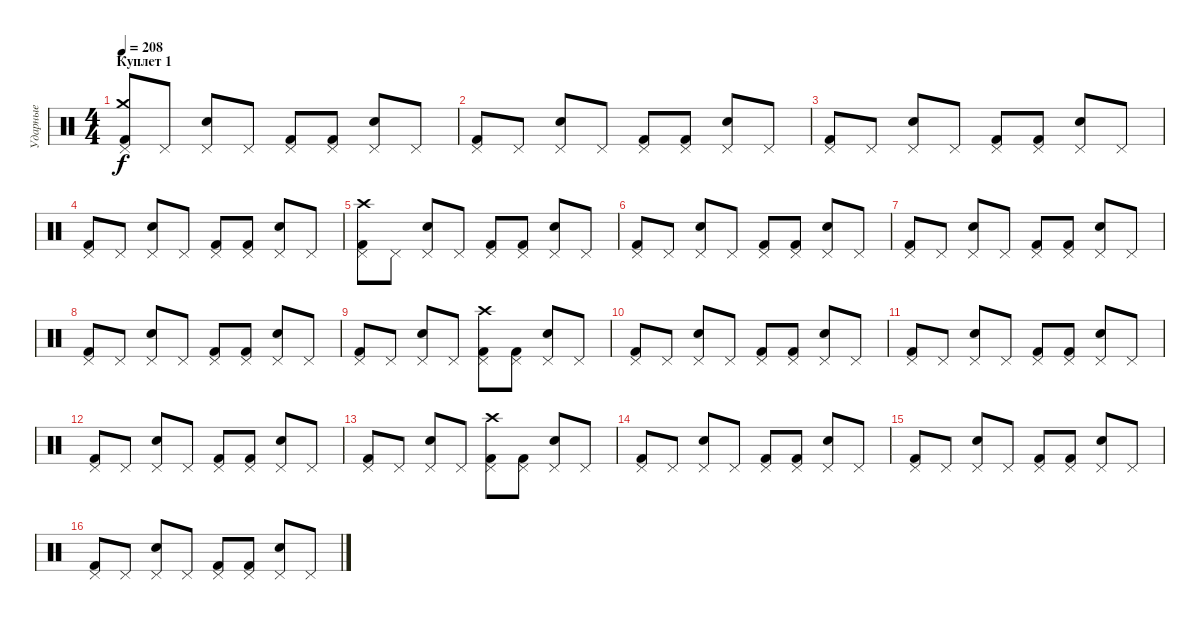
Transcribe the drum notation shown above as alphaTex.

\track ("Ударные" "Ударные") {instrument percussion}
\staff {score}
\articulation defaults
\ts (4 4)
\section ("" "Куплет 1")
\tempo 208
\clef neutral
\ks c
("Pedal Hi-Hat (hit)" "Crash medium (hit)" "Kick (hit) 2").8{dy f} "Pedal Hi-Hat (hit)".8 ("Pedal Hi-Hat (hit)" "Electric Snare (hit)").8 "Pedal Hi-Hat (hit)".8 ("Pedal Hi-Hat (hit)" "Kick (hit) 2").8 ("Pedal Hi-Hat (hit)" "Kick (hit) 2").8 ("Pedal Hi-Hat (hit)" "Electric Snare (hit)").8 "Pedal Hi-Hat (hit)".8 |
("Pedal Hi-Hat (hit)" "Kick (hit) 2").8 "Pedal Hi-Hat (hit)".8 ("Pedal Hi-Hat (hit)" "Electric Snare (hit)").8 "Pedal Hi-Hat (hit)".8 ("Pedal Hi-Hat (hit)" "Kick (hit) 2").8 ("Pedal Hi-Hat (hit)" "Kick (hit) 2").8 ("Pedal Hi-Hat (hit)" "Electric Snare (hit)").8 "Pedal Hi-Hat (hit)".8 |
("Pedal Hi-Hat (hit)" "Kick (hit) 2").8 "Pedal Hi-Hat (hit)".8 ("Pedal Hi-Hat (hit)" "Electric Snare (hit)").8 "Pedal Hi-Hat (hit)".8 ("Pedal Hi-Hat (hit)" "Kick (hit) 2").8 ("Pedal Hi-Hat (hit)" "Kick (hit) 2").8 ("Pedal Hi-Hat (hit)" "Electric Snare (hit)").8 "Pedal Hi-Hat (hit)".8 |
("Pedal Hi-Hat (hit)" "Kick (hit) 2").8 "Pedal Hi-Hat (hit)".8 ("Pedal Hi-Hat (hit)" "Electric Snare (hit)").8 "Pedal Hi-Hat (hit)".8 ("Pedal Hi-Hat (hit)" "Kick (hit) 2").8 ("Pedal Hi-Hat (hit)" "Kick (hit) 2").8 ("Pedal Hi-Hat (hit)" "Electric Snare (hit)").8 "Pedal Hi-Hat (hit)".8 |
("Pedal Hi-Hat (hit)" "Crash high (hit)" "Kick (hit) 2").8 "Pedal Hi-Hat (hit)".8 ("Pedal Hi-Hat (hit)" "Electric Snare (hit)").8 "Pedal Hi-Hat (hit)".8 ("Pedal Hi-Hat (hit)" "Kick (hit) 2").8 ("Pedal Hi-Hat (hit)" "Kick (hit) 2").8 ("Pedal Hi-Hat (hit)" "Electric Snare (hit)").8 "Pedal Hi-Hat (hit)".8 |
("Pedal Hi-Hat (hit)" "Kick (hit) 2").8 "Pedal Hi-Hat (hit)".8 ("Pedal Hi-Hat (hit)" "Electric Snare (hit)").8 "Pedal Hi-Hat (hit)".8 ("Pedal Hi-Hat (hit)" "Kick (hit) 2").8 ("Pedal Hi-Hat (hit)" "Kick (hit) 2").8 ("Pedal Hi-Hat (hit)" "Electric Snare (hit)").8 "Pedal Hi-Hat (hit)".8 |
("Pedal Hi-Hat (hit)" "Kick (hit) 2").8 "Pedal Hi-Hat (hit)".8 ("Pedal Hi-Hat (hit)" "Electric Snare (hit)").8 "Pedal Hi-Hat (hit)".8 ("Pedal Hi-Hat (hit)" "Kick (hit) 2").8 ("Pedal Hi-Hat (hit)" "Kick (hit) 2").8 ("Pedal Hi-Hat (hit)" "Electric Snare (hit)").8 "Pedal Hi-Hat (hit)".8 |
("Pedal Hi-Hat (hit)" "Kick (hit) 2").8 "Pedal Hi-Hat (hit)".8 ("Pedal Hi-Hat (hit)" "Electric Snare (hit)").8 "Pedal Hi-Hat (hit)".8 ("Pedal Hi-Hat (hit)" "Kick (hit) 2").8 ("Pedal Hi-Hat (hit)" "Kick (hit) 2").8 ("Pedal Hi-Hat (hit)" "Electric Snare (hit)").8 "Pedal Hi-Hat (hit)".8 |
("Pedal Hi-Hat (hit)" "Kick (hit) 2").8 "Pedal Hi-Hat (hit)".8 ("Pedal Hi-Hat (hit)" "Electric Snare (hit)").8 "Pedal Hi-Hat (hit)".8 ("Pedal Hi-Hat (hit)" "Crash high (hit)" "Kick (hit) 2").8 ("Pedal Hi-Hat (hit)" "Kick (hit) 2").8 ("Pedal Hi-Hat (hit)" "Electric Snare (hit)").8 "Pedal Hi-Hat (hit)".8 |
("Pedal Hi-Hat (hit)" "Kick (hit) 2").8 "Pedal Hi-Hat (hit)".8 ("Pedal Hi-Hat (hit)" "Electric Snare (hit)").8 "Pedal Hi-Hat (hit)".8 ("Pedal Hi-Hat (hit)" "Kick (hit) 2").8 ("Pedal Hi-Hat (hit)" "Kick (hit) 2").8 ("Pedal Hi-Hat (hit)" "Electric Snare (hit)").8 "Pedal Hi-Hat (hit)".8 |
("Pedal Hi-Hat (hit)" "Kick (hit) 2").8 "Pedal Hi-Hat (hit)".8 ("Pedal Hi-Hat (hit)" "Electric Snare (hit)").8 "Pedal Hi-Hat (hit)".8 ("Pedal Hi-Hat (hit)" "Kick (hit) 2").8 ("Pedal Hi-Hat (hit)" "Kick (hit) 2").8 ("Pedal Hi-Hat (hit)" "Electric Snare (hit)").8 "Pedal Hi-Hat (hit)".8 |
("Pedal Hi-Hat (hit)" "Kick (hit) 2").8 "Pedal Hi-Hat (hit)".8 ("Pedal Hi-Hat (hit)" "Electric Snare (hit)").8 "Pedal Hi-Hat (hit)".8 ("Pedal Hi-Hat (hit)" "Kick (hit) 2").8 ("Pedal Hi-Hat (hit)" "Kick (hit) 2").8 ("Pedal Hi-Hat (hit)" "Electric Snare (hit)").8 "Pedal Hi-Hat (hit)".8 |
("Pedal Hi-Hat (hit)" "Kick (hit) 2").8 "Pedal Hi-Hat (hit)".8 ("Pedal Hi-Hat (hit)" "Electric Snare (hit)").8 "Pedal Hi-Hat (hit)".8 ("Pedal Hi-Hat (hit)" "Crash high (hit)" "Kick (hit) 2").8 ("Pedal Hi-Hat (hit)" "Kick (hit) 2").8 ("Pedal Hi-Hat (hit)" "Electric Snare (hit)").8 "Pedal Hi-Hat (hit)".8 |
("Pedal Hi-Hat (hit)" "Kick (hit) 2").8 "Pedal Hi-Hat (hit)".8 ("Pedal Hi-Hat (hit)" "Electric Snare (hit)").8 "Pedal Hi-Hat (hit)".8 ("Pedal Hi-Hat (hit)" "Kick (hit) 2").8 ("Pedal Hi-Hat (hit)" "Kick (hit) 2").8 ("Pedal Hi-Hat (hit)" "Electric Snare (hit)").8 "Pedal Hi-Hat (hit)".8 |
("Pedal Hi-Hat (hit)" "Kick (hit) 2").8 "Pedal Hi-Hat (hit)".8 ("Pedal Hi-Hat (hit)" "Electric Snare (hit)").8 "Pedal Hi-Hat (hit)".8 ("Pedal Hi-Hat (hit)" "Kick (hit) 2").8 ("Pedal Hi-Hat (hit)" "Kick (hit) 2").8 ("Pedal Hi-Hat (hit)" "Electric Snare (hit)").8 "Pedal Hi-Hat (hit)".8 |
("Pedal Hi-Hat (hit)" "Kick (hit) 2").8 "Pedal Hi-Hat (hit)".8 ("Pedal Hi-Hat (hit)" "Electric Snare (hit)").8 "Pedal Hi-Hat (hit)".8 ("Pedal Hi-Hat (hit)" "Kick (hit) 2").8 ("Pedal Hi-Hat (hit)" "Kick (hit) 2").8 ("Pedal Hi-Hat (hit)" "Electric Snare (hit)").8 "Pedal Hi-Hat (hit)".8
